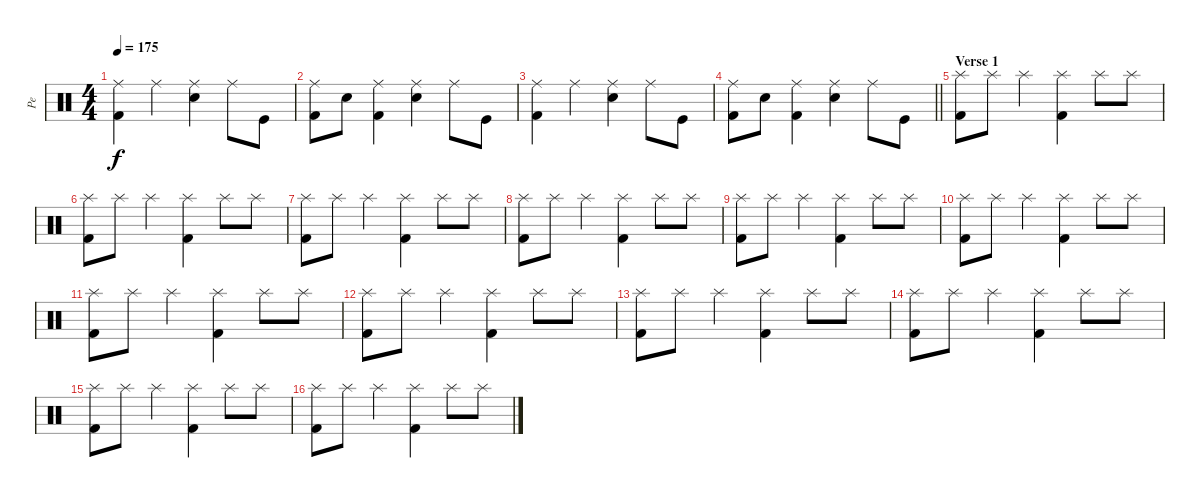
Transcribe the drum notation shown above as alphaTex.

\track ("Pe" "Pe") {instrument percussion}
\staff {score}
\articulation defaults
\ts (4 4)
\tempo 175
\clef neutral
\ks c
("Kick (hit) 2" "Ride (middle)").4{dy f volume 11} "Ride (middle)".4 ("Electric Snare (hit)" "Ride (middle)").4 "Ride (middle)".8 "Kick (hit)".8 |
("Kick (hit) 2" "Ride (middle)").8 "Electric Snare (hit)".8 ("Kick (hit) 2" "Ride (middle)").4 ("Electric Snare (hit)" "Ride (middle)").4 "Ride (middle)".8 "Kick (hit)".8 |
("Kick (hit) 2" "Ride (middle)").4 "Ride (middle)".4 ("Electric Snare (hit)" "Ride (middle)").4 "Ride (middle)".8 "Kick (hit)".8 |
\barLineRight lightlight
("Kick (hit) 2" "Ride (middle)").8 "Electric Snare (hit)".8 ("Kick (hit) 2" "Ride (middle)").4 ("Electric Snare (hit)" "Ride (middle)").4 "Ride (middle)".8 "Kick (hit)".8 |
\section ("" "Verse 1")
("Kick (hit) 2" "Splash (hit)").8 "Splash (hit)".8 "Splash (hit)".4 ("Kick (hit) 2" "Splash (hit)").4 "Splash (hit)".8 "Splash (hit)".8 |
("Kick (hit) 2" "Splash (hit)").8 "Splash (hit)".8 "Splash (hit)".4 ("Kick (hit) 2" "Splash (hit)").4 "Splash (hit)".8 "Splash (hit)".8 |
("Kick (hit) 2" "Splash (hit)").8 "Splash (hit)".8 "Splash (hit)".4 ("Kick (hit) 2" "Splash (hit)").4 "Splash (hit)".8 "Splash (hit)".8 |
("Kick (hit) 2" "Splash (hit)").8 "Splash (hit)".8 "Splash (hit)".4 ("Kick (hit) 2" "Splash (hit)").4 "Splash (hit)".8 "Splash (hit)".8 |
("Kick (hit) 2" "Splash (hit)").8 "Splash (hit)".8 "Splash (hit)".4 ("Kick (hit) 2" "Splash (hit)").4 "Splash (hit)".8 "Splash (hit)".8 |
("Kick (hit) 2" "Splash (hit)").8 "Splash (hit)".8 "Splash (hit)".4 ("Kick (hit) 2" "Splash (hit)").4 "Splash (hit)".8 "Splash (hit)".8 |
("Kick (hit) 2" "Splash (hit)").8 "Splash (hit)".8 "Splash (hit)".4 ("Kick (hit) 2" "Splash (hit)").4 "Splash (hit)".8 "Splash (hit)".8 |
("Kick (hit) 2" "Splash (hit)").8 "Splash (hit)".8 "Splash (hit)".4 ("Kick (hit) 2" "Splash (hit)").4 "Splash (hit)".8 "Splash (hit)".8 |
("Kick (hit) 2" "Splash (hit)").8 "Splash (hit)".8 "Splash (hit)".4 ("Kick (hit) 2" "Splash (hit)").4 "Splash (hit)".8 "Splash (hit)".8 |
("Kick (hit) 2" "Splash (hit)").8 "Splash (hit)".8 "Splash (hit)".4 ("Kick (hit) 2" "Splash (hit)").4 "Splash (hit)".8 "Splash (hit)".8 |
("Kick (hit) 2" "Splash (hit)").8 "Splash (hit)".8 "Splash (hit)".4 ("Kick (hit) 2" "Splash (hit)").4 "Splash (hit)".8 "Splash (hit)".8 |
("Kick (hit) 2" "Splash (hit)").8 "Splash (hit)".8 "Splash (hit)".4 ("Kick (hit) 2" "Splash (hit)").4 "Splash (hit)".8 "Splash (hit)".8
